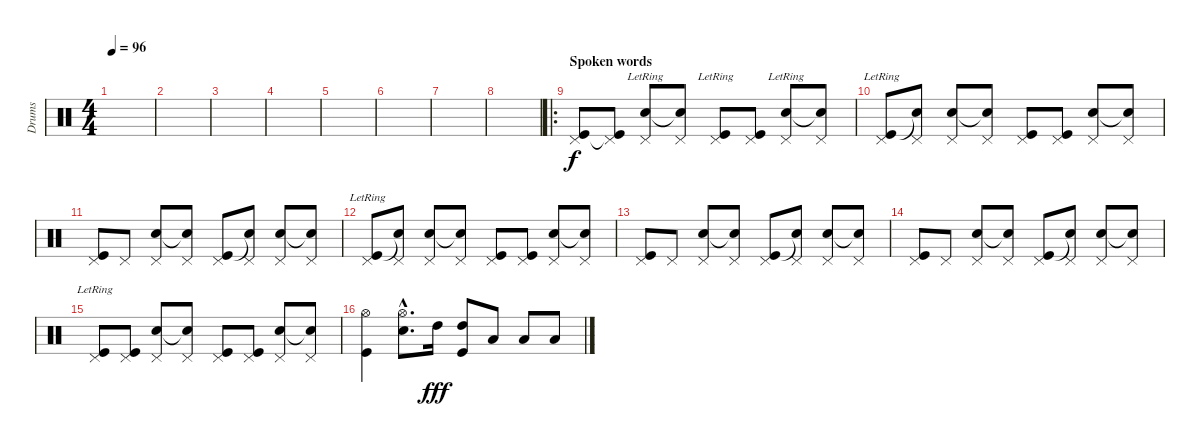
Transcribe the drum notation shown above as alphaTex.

\track ("Drums" "Drums") {instrument percussion}
\staff {score}
\articulation defaults
\ts (4 4)
\tempo 96
\clef neutral
\ks c
|
|
|
|
|
|
|
|
\ro
\section ("" "Spoken words")
("Kick (hit)" "Pedal Hi-Hat (hit)").8 ("Kick (hit)"{t} "Pedal Hi-Hat (hit)").8 ("Snare (hit) 2"{lr} "Pedal Hi-Hat (hit)").8 ("Snare (hit)"{t} "Pedal Hi-Hat (hit)").8 ("Kick (hit)"{lr} "Pedal Hi-Hat (hit)").8 ("Kick (hit)" "Pedal Hi-Hat (hit)").8 ("Snare (hit) 2"{lr} "Pedal Hi-Hat (hit)").8 ("Snare (hit)"{t} "Pedal Hi-Hat (hit)").8 |
("Kick (hit)"{lr} "Pedal Hi-Hat (hit)").8 ("Snare (hit)"{t} "Pedal Hi-Hat (hit)").8 ("Snare (hit) 2" "Pedal Hi-Hat (hit)").8 ("Snare (hit)"{t} "Pedal Hi-Hat (hit)").8 ("Kick (hit)" "Pedal Hi-Hat (hit)").8 ("Kick (hit)" "Pedal Hi-Hat (hit)").8 ("Snare (hit) 2" "Pedal Hi-Hat (hit)").8 ("Snare (hit)"{t} "Pedal Hi-Hat (hit)").8 |
("Kick (hit)" "Pedal Hi-Hat (hit)").8 "Pedal Hi-Hat (hit)".8 ("Snare (hit) 2" "Pedal Hi-Hat (hit)").8 ("Snare (hit)"{t} "Pedal Hi-Hat (hit)").8 ("Kick (hit)" "Pedal Hi-Hat (hit)").8 ("Snare (hit)"{t} "Pedal Hi-Hat (hit)").8 ("Snare (hit) 2" "Pedal Hi-Hat (hit)").8 ("Snare (hit)"{t} "Pedal Hi-Hat (hit)").8 |
("Kick (hit)"{lr} "Pedal Hi-Hat (hit)").8 ("Snare (hit)"{t} "Pedal Hi-Hat (hit)").8 ("Snare (hit) 2" "Pedal Hi-Hat (hit)").8 ("Snare (hit)"{t} "Pedal Hi-Hat (hit)").8 ("Kick (hit)" "Pedal Hi-Hat (hit)").8 ("Kick (hit)" "Pedal Hi-Hat (hit)").8 ("Snare (hit) 2" "Pedal Hi-Hat (hit)").8 ("Snare (hit)"{t} "Pedal Hi-Hat (hit)").8 |
("Kick (hit)" "Pedal Hi-Hat (hit)").8 "Pedal Hi-Hat (hit)".8 ("Snare (hit) 2" "Pedal Hi-Hat (hit)").8 ("Snare (hit)"{t} "Pedal Hi-Hat (hit)").8 ("Kick (hit)" "Pedal Hi-Hat (hit)").8 ("Snare (hit)"{t} "Pedal Hi-Hat (hit)").8 ("Snare (hit) 2" "Pedal Hi-Hat (hit)").8 ("Snare (hit)"{t} "Pedal Hi-Hat (hit)").8 |
("Kick (hit)" "Pedal Hi-Hat (hit)").8 "Pedal Hi-Hat (hit)".8 ("Snare (hit) 2" "Pedal Hi-Hat (hit)").8 ("Snare (hit)"{t} "Pedal Hi-Hat (hit)").8 ("Kick (hit)" "Pedal Hi-Hat (hit)").8 ("Snare (hit)"{t} "Pedal Hi-Hat (hit)").8 ("Snare (hit) 2" "Pedal Hi-Hat (hit)").8 ("Snare (hit)"{t} "Pedal Hi-Hat (hit)").8 |
("Kick (hit)"{lr} "Pedal Hi-Hat (hit)").8 ("Kick (hit)" "Pedal Hi-Hat (hit)").8 ("Snare (hit) 2" "Pedal Hi-Hat (hit)").8 ("Snare (hit)"{t} "Pedal Hi-Hat (hit)").8 ("Kick (hit)" "Pedal Hi-Hat (hit)").8 ("Kick (hit)" "Pedal Hi-Hat (hit)").8 ("Snare (hit) 2" "Pedal Hi-Hat (hit)").8 ("Snare (hit)"{t} "Pedal Hi-Hat (hit)").8 |
("Kick (hit)" "Hi-Hat (open)").4 ("Snare (hit) 2"{hac} "Hi-Hat (open)"{hac}).8{d} "High Tom (hit)".16{dy fff} ("Kick (hit)" "High Tom (hit)").8 "Low Tom (hit)".8 "Low Tom (hit)".8 "Low Tom (hit)".8
